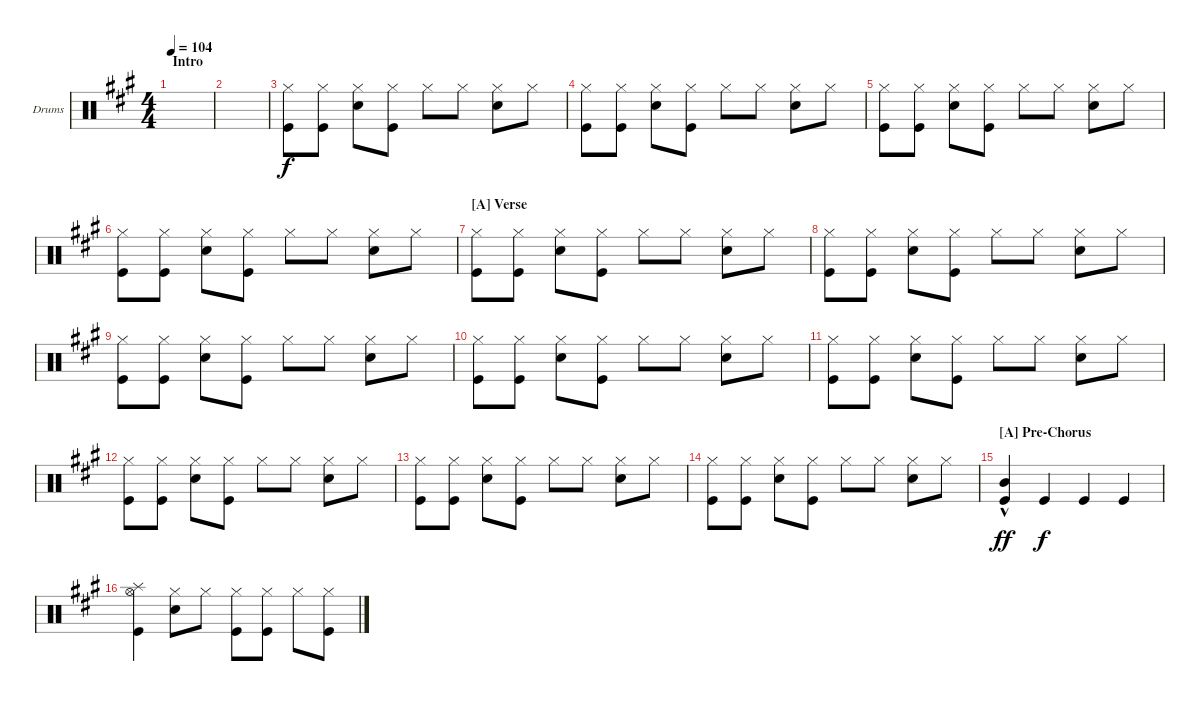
\defaultSystemsLayout 4
\bracketExtendMode groupsimilarinstruments
\firstSystemTrackNameOrientation horizontal
\otherSystemsTrackNameOrientation horizontal
\track ("Drumkit" "Drums") {instrument percussion}
\staff {score}
\articulation defaults
\ts (4 4)
\section ("" "Intro")
\tempo 104
\clef neutral
\scale
0.529412
\ks a
|
\scale
0.235294 |
\scale
0.235294 ("Hi-Hat (closed)" "Kick (hit)").8 ("Hi-Hat (closed)" "Kick (hit)").8 ("Hi-Hat (closed)" "Snare (hit) 2").8 ("Hi-Hat (closed)" "Kick (hit)").8 "Hi-Hat (closed)".8 "Hi-Hat (closed)".8 ("Hi-Hat (closed)" "Snare (hit) 2").8 "Hi-Hat (closed)".8 |
\scale
0.333333 ("Hi-Hat (closed)" "Kick (hit)").8 ("Hi-Hat (closed)" "Kick (hit)").8 ("Hi-Hat (closed)" "Snare (hit) 2").8 ("Hi-Hat (closed)" "Kick (hit)").8 "Hi-Hat (closed)".8 "Hi-Hat (closed)".8 ("Hi-Hat (closed)" "Snare (hit) 2").8 "Hi-Hat (closed)".8 |
\scale
0.333333 ("Hi-Hat (closed)" "Kick (hit)").8 ("Hi-Hat (closed)" "Kick (hit)").8 ("Hi-Hat (closed)" "Snare (hit) 2").8 ("Hi-Hat (closed)" "Kick (hit)").8 "Hi-Hat (closed)".8 "Hi-Hat (closed)".8 ("Hi-Hat (closed)" "Snare (hit) 2").8 "Hi-Hat (closed)".8 |
\scale
0.333333 ("Hi-Hat (closed)" "Kick (hit)").8 ("Hi-Hat (closed)" "Kick (hit)").8 ("Hi-Hat (closed)" "Snare (hit) 2").8 ("Hi-Hat (closed)" "Kick (hit)").8 "Hi-Hat (closed)".8 "Hi-Hat (closed)".8 ("Hi-Hat (closed)" "Snare (hit) 2").8 "Hi-Hat (closed)".8 |
\section ("A" "Verse")
("Hi-Hat (closed)" "Kick (hit)").8 ("Hi-Hat (closed)" "Kick (hit)").8 ("Hi-Hat (closed)" "Snare (hit) 2").8 ("Hi-Hat (closed)" "Kick (hit)").8 "Hi-Hat (closed)".8 "Hi-Hat (closed)".8 ("Hi-Hat (closed)" "Snare (hit) 2").8 "Hi-Hat (closed)".8 |
("Hi-Hat (closed)" "Kick (hit)").8 ("Hi-Hat (closed)" "Kick (hit)").8 ("Hi-Hat (closed)" "Snare (hit) 2").8 ("Hi-Hat (closed)" "Kick (hit)").8 "Hi-Hat (closed)".8 "Hi-Hat (closed)".8 ("Hi-Hat (closed)" "Snare (hit) 2").8 "Hi-Hat (closed)".8 |
("Hi-Hat (closed)" "Kick (hit)").8 ("Hi-Hat (closed)" "Kick (hit)").8 ("Hi-Hat (closed)" "Snare (hit) 2").8 ("Hi-Hat (closed)" "Kick (hit)").8 "Hi-Hat (closed)".8 "Hi-Hat (closed)".8 ("Hi-Hat (closed)" "Snare (hit) 2").8 "Hi-Hat (closed)".8 |
("Hi-Hat (closed)" "Kick (hit)").8 ("Hi-Hat (closed)" "Kick (hit)").8 ("Hi-Hat (closed)" "Snare (hit) 2").8 ("Hi-Hat (closed)" "Kick (hit)").8 "Hi-Hat (closed)".8 "Hi-Hat (closed)".8 ("Hi-Hat (closed)" "Snare (hit) 2").8 "Hi-Hat (closed)".8 |
("Hi-Hat (closed)" "Kick (hit)").8 ("Hi-Hat (closed)" "Kick (hit)").8 ("Hi-Hat (closed)" "Snare (hit) 2").8 ("Hi-Hat (closed)" "Kick (hit)").8 "Hi-Hat (closed)".8 "Hi-Hat (closed)".8 ("Hi-Hat (closed)" "Snare (hit) 2").8 "Hi-Hat (closed)".8 |
("Hi-Hat (closed)" "Kick (hit)").8 ("Hi-Hat (closed)" "Kick (hit)").8 ("Hi-Hat (closed)" "Snare (hit) 2").8 ("Hi-Hat (closed)" "Kick (hit)").8 "Hi-Hat (closed)".8 "Hi-Hat (closed)".8 ("Hi-Hat (closed)" "Snare (hit) 2").8 "Hi-Hat (closed)".8 |
("Hi-Hat (closed)" "Kick (hit)").8 ("Hi-Hat (closed)" "Kick (hit)").8 ("Hi-Hat (closed)" "Snare (hit) 2").8 ("Hi-Hat (closed)" "Kick (hit)").8 "Hi-Hat (closed)".8 "Hi-Hat (closed)".8 ("Hi-Hat (closed)" "Snare (hit) 2").8 "Hi-Hat (closed)".8 |
("Hi-Hat (closed)" "Kick (hit)").8 ("Hi-Hat (closed)" "Kick (hit)").8 ("Hi-Hat (closed)" "Snare (hit) 2").8 ("Hi-Hat (closed)" "Kick (hit)").8 "Hi-Hat (closed)".8 "Hi-Hat (closed)".8 ("Hi-Hat (closed)" "Snare (hit) 2").8 "Hi-Hat (closed)".8 |
\section ("A" "Pre-Chorus")
\scale
0.333333 ("Mid Tom (hit)"{hac} "Kick (hit)"{hac}).4{dy ff} "Kick (hit)".4{dy f} "Kick (hit)".4 "Kick (hit)".4 |
\scale
0.333333 ("Splash (hit)" "Hi-Hat (open)" "Kick (hit)").4 ("Hi-Hat (closed)" "Snare (hit) 2").8 "Hi-Hat (closed)".8 ("Hi-Hat (closed)" "Kick (hit)").8 ("Hi-Hat (closed)" "Kick (hit)").8 "Hi-Hat (closed)".8 ("Hi-Hat (closed)" "Kick (hit)").8
